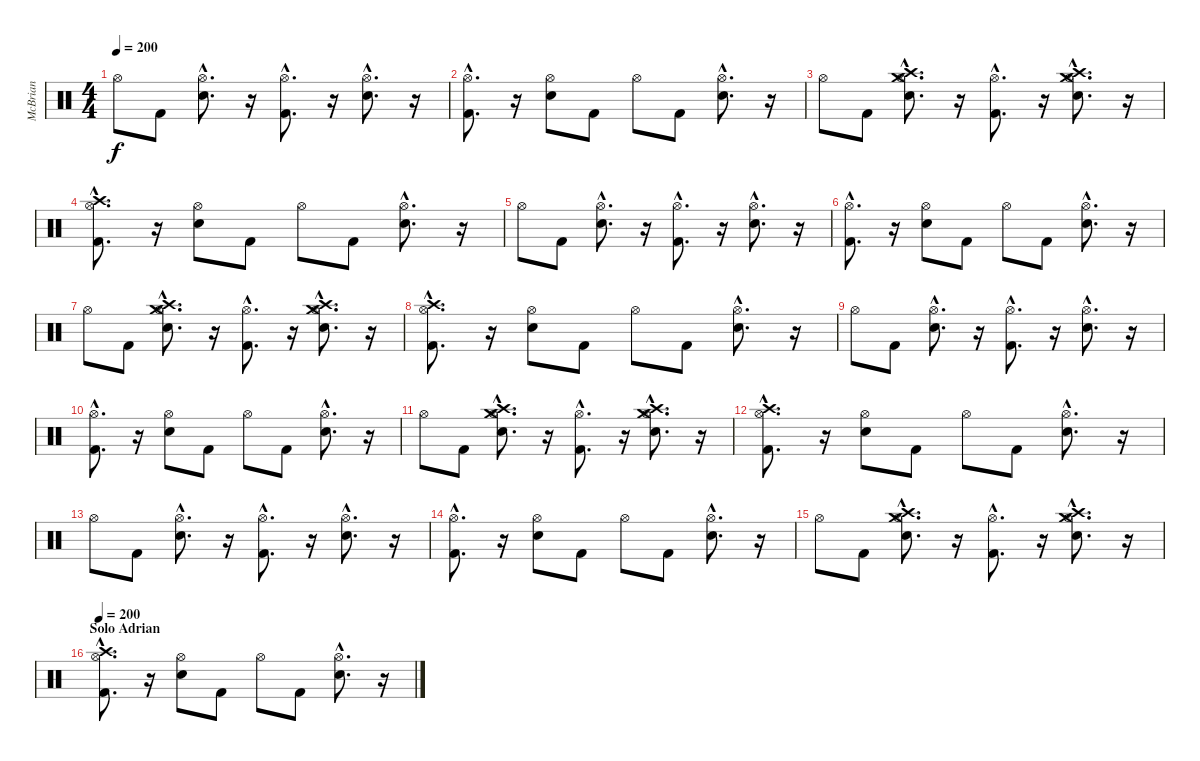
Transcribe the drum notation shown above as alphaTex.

\track ("McBrian" "McBrian") {instrument percussion}
\staff {score}
\articulation defaults
\ts (4 4)
\tempo 200
\clef neutral
\ks c "Hi-Hat (open)".8{dy f} "Kick (hit) 2".8
("Hi-Hat (open)"{hac} "Snare (hit) 2"{hac}).8{d} r.16 ("Hi-Hat (open)"{hac} "Kick (hit) 2"{hac}).8{d} r.16 ("Snare (hit) 2"{hac} "Hi-Hat (open)"{hac}).8{d} r.16 |
("Hi-Hat (open)"{hac} "Kick (hit) 2"{hac}).8{d} r.16 ("Snare (hit) 2" "Hi-Hat (open)").8 "Kick (hit) 2".8 "Hi-Hat (open)".8 "Kick (hit) 2".8 ("Hi-Hat (open)"{hac} "Snare (hit) 2"{hac}).8{d} r.16 |
"Hi-Hat (open)".8 "Kick (hit) 2".8 ("Crash medium (hit)"{hac} "Snare (hit) 2"{hac} "Hi-Hat (open)"{hac} "Crash high (hit)"{hac}).8{d} r.16 ("Hi-Hat (open)"{hac} "Kick (hit) 2"{hac}).8{d} r.16 ("Snare (hit) 2"{hac} "Hi-Hat (open)"{hac} "Crash high (hit)"{hac} "Crash medium (hit)"{hac}).8{d} r.16 |
("Hi-Hat (open)"{hac} "Crash high (hit)"{hac} "Kick (hit) 2"{hac}).8{d} r.16 ("Snare (hit) 2" "Hi-Hat (open)").8 "Kick (hit) 2".8 "Hi-Hat (open)".8 "Kick (hit) 2".8 ("Hi-Hat (open)"{hac} "Snare (hit) 2"{hac}).8{d} r.16 |
"Hi-Hat (open)".8 "Kick (hit) 2".8 ("Hi-Hat (open)"{hac} "Snare (hit) 2"{hac}).8{d} r.16 ("Hi-Hat (open)"{hac} "Kick (hit) 2"{hac}).8{d} r.16 ("Snare (hit) 2"{hac} "Hi-Hat (open)"{hac}).8{d} r.16 |
("Hi-Hat (open)"{hac} "Kick (hit) 2"{hac}).8{d} r.16 ("Snare (hit) 2" "Hi-Hat (open)").8 "Kick (hit) 2".8 "Hi-Hat (open)".8 "Kick (hit) 2".8 ("Hi-Hat (open)"{hac} "Snare (hit) 2"{hac}).8{d} r.16 |
"Hi-Hat (open)".8 "Kick (hit) 2".8 ("Crash medium (hit)"{hac} "Snare (hit) 2"{hac} "Hi-Hat (open)"{hac} "Crash high (hit)"{hac}).8{d} r.16 ("Hi-Hat (open)"{hac} "Kick (hit) 2"{hac}).8{d} r.16 ("Snare (hit) 2"{hac} "Hi-Hat (open)"{hac} "Crash high (hit)"{hac} "Crash medium (hit)"{hac}).8{d} r.16 |
("Hi-Hat (open)"{hac} "Crash high (hit)"{hac} "Kick (hit) 2"{hac}).8{d} r.16 ("Snare (hit) 2" "Hi-Hat (open)").8 "Kick (hit) 2".8 "Hi-Hat (open)".8 "Kick (hit) 2".8 ("Hi-Hat (open)"{hac} "Snare (hit) 2"{hac}).8{d} r.16 |
"Hi-Hat (open)".8 "Kick (hit) 2".8 ("Hi-Hat (open)"{hac} "Snare (hit) 2"{hac}).8{d} r.16 ("Hi-Hat (open)"{hac} "Kick (hit) 2"{hac}).8{d} r.16 ("Snare (hit) 2"{hac} "Hi-Hat (open)"{hac}).8{d} r.16 |
("Hi-Hat (open)"{hac} "Kick (hit) 2"{hac}).8{d} r.16 ("Snare (hit) 2" "Hi-Hat (open)").8 "Kick (hit) 2".8 "Hi-Hat (open)".8 "Kick (hit) 2".8 ("Hi-Hat (open)"{hac} "Snare (hit) 2"{hac}).8{d} r.16 |
"Hi-Hat (open)".8 "Kick (hit) 2".8 ("Crash medium (hit)"{hac} "Snare (hit) 2"{hac} "Hi-Hat (open)"{hac} "Crash high (hit)"{hac}).8{d} r.16 ("Hi-Hat (open)"{hac} "Kick (hit) 2"{hac}).8{d} r.16 ("Snare (hit) 2"{hac} "Hi-Hat (open)"{hac} "Crash high (hit)"{hac} "Crash medium (hit)"{hac}).8{d} r.16 |
("Hi-Hat (open)"{hac} "Crash high (hit)"{hac} "Kick (hit) 2"{hac}).8{d} r.16 ("Snare (hit) 2" "Hi-Hat (open)").8 "Kick (hit) 2".8 "Hi-Hat (open)".8 "Kick (hit) 2".8 ("Hi-Hat (open)"{hac} "Snare (hit) 2"{hac}).8{d} r.16 |
"Hi-Hat (open)".8 "Kick (hit) 2".8 ("Hi-Hat (open)"{hac} "Snare (hit) 2"{hac}).8{d} r.16 ("Hi-Hat (open)"{hac} "Kick (hit) 2"{hac}).8{d} r.16 ("Snare (hit) 2"{hac} "Hi-Hat (open)"{hac}).8{d} r.16 |
("Hi-Hat (open)"{hac} "Kick (hit) 2"{hac}).8{d} r.16 ("Snare (hit) 2" "Hi-Hat (open)").8 "Kick (hit) 2".8 "Hi-Hat (open)".8 "Kick (hit) 2".8 ("Hi-Hat (open)"{hac} "Snare (hit) 2"{hac}).8{d} r.16 |
"Hi-Hat (open)".8 "Kick (hit) 2".8 ("Crash medium (hit)"{hac} "Snare (hit) 2"{hac} "Hi-Hat (open)"{hac} "Crash high (hit)"{hac}).8{d} r.16 ("Hi-Hat (open)"{hac} "Kick (hit) 2"{hac}).8{d} r.16 ("Snare (hit) 2"{hac} "Hi-Hat (open)"{hac} "Crash high (hit)"{hac} "Crash medium (hit)"{hac}).8{d} r.16 |
\section ("" "Solo Adrian")
\tempo 200
("Hi-Hat (open)"{hac} "Crash high (hit)"{hac} "Kick (hit) 2"{hac}).8{d} r.16 ("Snare (hit) 2" "Hi-Hat (open)").8 "Kick (hit) 2".8 "Hi-Hat (open)".8 "Kick (hit) 2".8 ("Hi-Hat (open)"{hac} "Snare (hit) 2"{hac}).8{d} r.16
